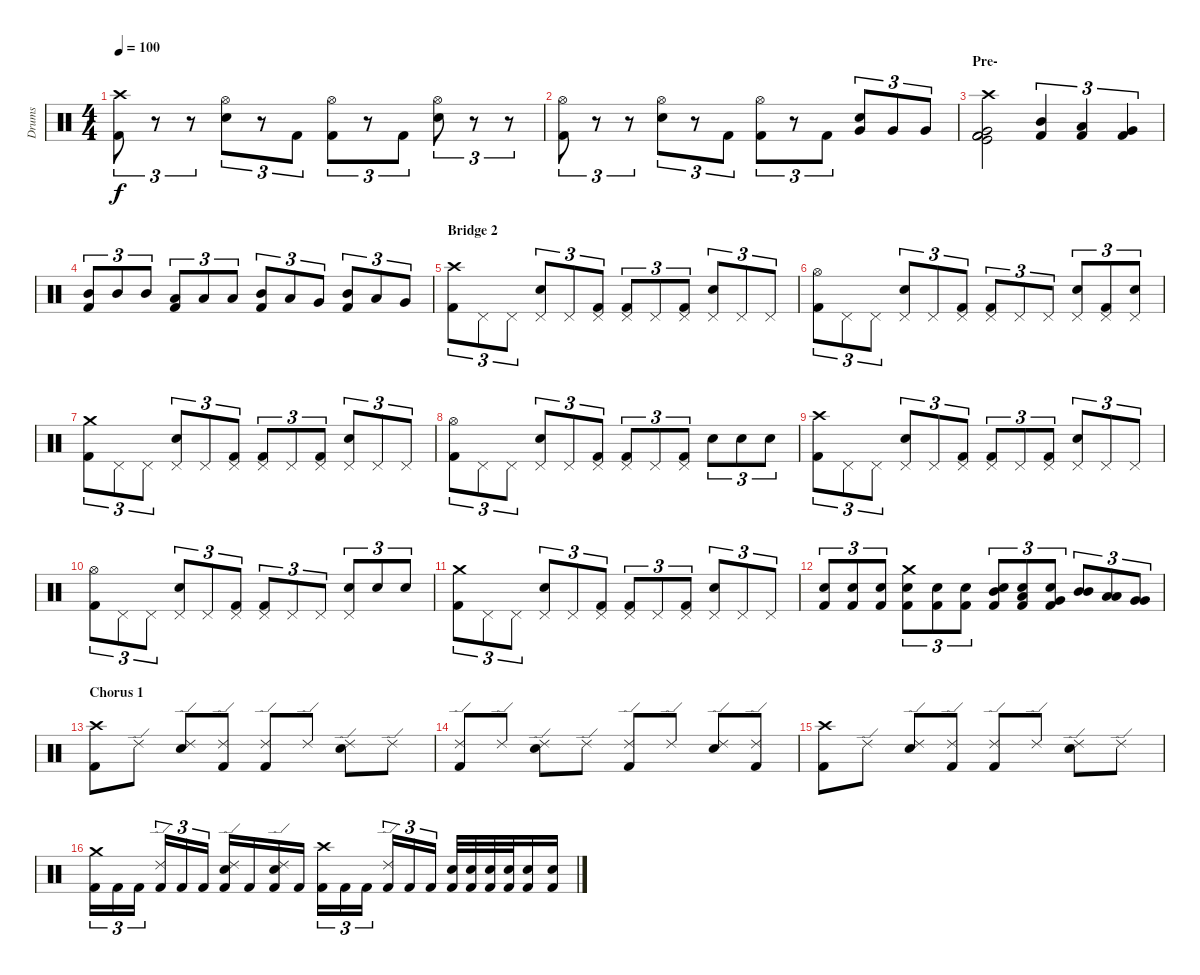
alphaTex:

\track ("Drums" "Drums") {instrument percussion}
\staff {score}
\articulation defaults
\ts (4 4)
\tempo 100
\clef neutral
\ks c
("Crash high (hit)" "Kick (hit) 2").8{tu (3 2) dy f} r.8{tu (3 2)} r.8{tu (3 2)} ("Hi-Hat (open)" "Electric Snare (hit)").8{tu (3 2)} r.8{tu (3 2)} "Kick (hit) 2".8{tu (3 2)} ("Hi-Hat (open)" "Kick (hit) 2").8{tu (3 2)} r.8{tu (3 2)} "Kick (hit) 2".8{tu (3 2)} ("Hi-Hat (open)" "Electric Snare (hit)").8{tu (3 2)} r.8{tu (3 2)} r.8{tu (3 2)} |
("Hi-Hat (open)" "Kick (hit) 2").8{tu (3 2)} r.8{tu (3 2)} r.8{tu (3 2)} ("Hi-Hat (open)" "Electric Snare (hit)").8{tu (3 2)} r.8{tu (3 2)} "Kick (hit) 2".8{tu (3 2)} ("Hi-Hat (open)" "Kick (hit) 2").8{tu (3 2)} r.8{tu (3 2)} "Kick (hit) 2".8{tu (3 2)} ("Very Low Tom (hit)" "Snare (hit) 2").8{tu (3 2)} "Very Low Tom (hit)".8{tu (3 2)} "Very Low Tom (hit)".8{tu (3 2)} |
\section ("" "Pre-")
("Crash high (hit)" "Very Low Tom (hit)" "Kick (hit)" "Kick (hit) 2" "Kick (hit) 2").2 ("Mid Tom (hit)" "Kick (hit) 2").4{tu (3 2)} ("Low Tom (hit)" "Kick (hit) 2").4{tu (3 2)} ("Very Low Tom (hit)" "Kick (hit) 2").4{tu (3 2)} |
("Mid Tom (hit)" "Kick (hit) 2").8{tu (3 2)} "Mid Tom (hit)".8{tu (3 2)} "Mid Tom (hit)".8{tu (3 2)} ("Low Tom (hit)" "Kick (hit) 2").8{tu (3 2)} "Low Tom (hit)".8{tu (3 2)} "Low Tom (hit)".8{tu (3 2)} ("Mid Tom (hit)" "Kick (hit) 2").8{tu (3 2)} "Low Tom (hit)".8{tu (3 2)} "Very Low Tom (hit)".8{tu (3 2)} ("Mid Tom (hit)" "Kick (hit) 2").8{tu (3 2)} "Low Tom (hit)".8{tu (3 2)} "Very Low Tom (hit)".8{tu (3 2)} |
\section ("" "Bridge 2")
("Crash high (hit)" "Kick (hit) 2").8{tu (3 2)} "Pedal Hi-Hat (hit)".8{tu (3 2)} "Pedal Hi-Hat (hit)".8{tu (3 2)} ("Pedal Hi-Hat (hit)" "Electric Snare (hit)").8{tu (3 2)} "Pedal Hi-Hat (hit)".8{tu (3 2)} ("Pedal Hi-Hat (hit)" "Kick (hit) 2").8{tu (3 2)} ("Pedal Hi-Hat (hit)" "Kick (hit) 2").8{tu (3 2)} "Pedal Hi-Hat (hit)".8{tu (3 2)} ("Pedal Hi-Hat (hit)" "Kick (hit) 2").8{tu (3 2)} ("Pedal Hi-Hat (hit)" "Electric Snare (hit)").8{tu (3 2)} "Pedal Hi-Hat (hit)".8{tu (3 2)} "Pedal Hi-Hat (hit)".8{tu (3 2)} |
("Hi-Hat (open)" "Kick (hit) 2").8{tu (3 2)} "Pedal Hi-Hat (hit)".8{tu (3 2)} "Pedal Hi-Hat (hit)".8{tu (3 2)} ("Pedal Hi-Hat (hit)" "Electric Snare (hit)").8{tu (3 2)} "Pedal Hi-Hat (hit)".8{tu (3 2)} ("Pedal Hi-Hat (hit)" "Kick (hit) 2").8{tu (3 2)} ("Pedal Hi-Hat (hit)" "Kick (hit) 2").8{tu (3 2)} "Pedal Hi-Hat (hit)".8{tu (3 2)} "Pedal Hi-Hat (hit)".8{tu (3 2)} ("Pedal Hi-Hat (hit)" "Electric Snare (hit)").8{tu (3 2)} ("Pedal Hi-Hat (hit)" "Kick (hit) 2").8{tu (3 2)} ("Pedal Hi-Hat (hit)" "Electric Snare (hit)").8{tu (3 2)} |
("Crash medium (hit)" "Kick (hit) 2").8{tu (3 2)} "Pedal Hi-Hat (hit)".8{tu (3 2)} "Pedal Hi-Hat (hit)".8{tu (3 2)} ("Pedal Hi-Hat (hit)" "Electric Snare (hit)").8{tu (3 2)} "Pedal Hi-Hat (hit)".8{tu (3 2)} ("Pedal Hi-Hat (hit)" "Kick (hit) 2").8{tu (3 2)} ("Pedal Hi-Hat (hit)" "Kick (hit) 2").8{tu (3 2)} "Pedal Hi-Hat (hit)".8{tu (3 2)} ("Pedal Hi-Hat (hit)" "Kick (hit) 2").8{tu (3 2)} ("Pedal Hi-Hat (hit)" "Electric Snare (hit)").8{tu (3 2)} "Pedal Hi-Hat (hit)".8{tu (3 2)} "Pedal Hi-Hat (hit)".8{tu (3 2)} |
("Hi-Hat (open)" "Kick (hit) 2").8{tu (3 2)} "Pedal Hi-Hat (hit)".8{tu (3 2)} "Pedal Hi-Hat (hit)".8{tu (3 2)} ("Pedal Hi-Hat (hit)" "Electric Snare (hit)").8{tu (3 2)} "Pedal Hi-Hat (hit)".8{tu (3 2)} ("Pedal Hi-Hat (hit)" "Kick (hit) 2").8{tu (3 2)} ("Pedal Hi-Hat (hit)" "Kick (hit) 2").8{tu (3 2)} "Pedal Hi-Hat (hit)".8{tu (3 2)} ("Pedal Hi-Hat (hit)" "Kick (hit) 2").8{tu (3 2)} "Snare (hit) 2".8{tu (3 2)} "Snare (hit) 2".8{tu (3 2)} "Snare (hit) 2".8{tu (3 2)} |
("Crash high (hit)" "Kick (hit) 2").8{tu (3 2)} "Pedal Hi-Hat (hit)".8{tu (3 2)} "Pedal Hi-Hat (hit)".8{tu (3 2)} ("Pedal Hi-Hat (hit)" "Electric Snare (hit)").8{tu (3 2)} "Pedal Hi-Hat (hit)".8{tu (3 2)} ("Pedal Hi-Hat (hit)" "Kick (hit) 2").8{tu (3 2)} ("Pedal Hi-Hat (hit)" "Kick (hit) 2").8{tu (3 2)} "Pedal Hi-Hat (hit)".8{tu (3 2)} ("Pedal Hi-Hat (hit)" "Kick (hit) 2").8{tu (3 2)} ("Pedal Hi-Hat (hit)" "Electric Snare (hit)").8{tu (3 2)} "Pedal Hi-Hat (hit)".8{tu (3 2)} "Pedal Hi-Hat (hit)".8{tu (3 2)} |
("Hi-Hat (open)" "Kick (hit) 2").8{tu (3 2)} "Pedal Hi-Hat (hit)".8{tu (3 2)} "Pedal Hi-Hat (hit)".8{tu (3 2)} ("Pedal Hi-Hat (hit)" "Electric Snare (hit)").8{tu (3 2)} "Pedal Hi-Hat (hit)".8{tu (3 2)} ("Pedal Hi-Hat (hit)" "Kick (hit) 2").8{tu (3 2)} ("Pedal Hi-Hat (hit)" "Kick (hit) 2").8{tu (3 2)} "Pedal Hi-Hat (hit)".8{tu (3 2)} "Pedal Hi-Hat (hit)".8{tu (3 2)} ("Pedal Hi-Hat (hit)" "Electric Snare (hit)").8{tu (3 2)} "Snare (hit) 2".8{tu (3 2)} "Snare (hit) 2".8{tu (3 2)} |
("Crash medium (hit)" "Kick (hit) 2").8{tu (3 2)} "Pedal Hi-Hat (hit)".8{tu (3 2)} "Pedal Hi-Hat (hit)".8{tu (3 2)} ("Pedal Hi-Hat (hit)" "Electric Snare (hit)").8{tu (3 2)} "Pedal Hi-Hat (hit)".8{tu (3 2)} ("Pedal Hi-Hat (hit)" "Kick (hit) 2").8{tu (3 2)} ("Pedal Hi-Hat (hit)" "Kick (hit) 2").8{tu (3 2)} "Pedal Hi-Hat (hit)".8{tu (3 2)} ("Pedal Hi-Hat (hit)" "Kick (hit) 2").8{tu (3 2)} ("Pedal Hi-Hat (hit)" "Electric Snare (hit)").8{tu (3 2)} "Pedal Hi-Hat (hit)".8{tu (3 2)} "Pedal Hi-Hat (hit)".8{tu (3 2)} |
("Snare (hit) 2" "Kick (hit) 2").8{tu (3 2)} ("Snare (hit) 2" "Kick (hit) 2").8{tu (3 2)} ("Snare (hit) 2" "Kick (hit) 2").8{tu (3 2)} ("Crash medium (hit)" "Snare (hit) 2" "Kick (hit) 2").8{tu (3 2)} ("Snare (hit) 2" "Kick (hit) 2").8{tu (3 2)} ("Snare (hit) 2" "Kick (hit) 2").8{tu (3 2)} ("Mid Tom (hit)" "Snare (hit) 2" "Kick (hit) 2").8{tu (3 2)} ("Low Tom (hit)" "Snare (hit) 2" "Kick (hit) 2").8{tu (3 2)} ("Very Low Tom (hit)" "Snare (hit) 2" "Kick (hit) 2").8{tu (3 2)} ("Mid Tom (hit)" "Mid Tom (hit)").8{tu (3 2)} ("Low Tom (hit)" "Low Tom (hit)").8{tu (3 2)} ("Very Low Tom (hit)" "Very Low Tom (hit)").8{tu (3 2)} |
\section ("" "Chorus 1")
("Crash high (hit)" "Kick (hit) 2").8 "Ride (edge) 2".8 ("Ride (edge) 2" "Snare (hit) 2").8 ("Ride (edge) 2" "Kick (hit) 2").8 ("Ride (edge) 2" "Kick (hit) 2").8 "Ride (edge) 2".8 ("Ride (edge) 2" "Snare (hit) 2").8 "Ride (edge) 2".8 |
("Ride (edge) 2" "Kick (hit) 2").8 "Ride (edge) 2".8 ("Ride (edge) 2" "Snare (hit) 2").8 "Ride (edge) 2".8 ("Ride (edge) 2" "Kick (hit) 2").8 "Ride (edge) 2".8 ("Ride (edge) 2" "Snare (hit) 2").8 ("Ride (edge) 2" "Kick (hit) 2").8 |
("Crash high (hit)" "Kick (hit) 2").8 "Ride (edge) 2".8 ("Ride (edge) 2" "Snare (hit) 2").8 ("Ride (edge) 2" "Kick (hit) 2").8 ("Ride (edge) 2" "Kick (hit) 2").8 "Ride (edge) 2".8 ("Ride (edge) 2" "Snare (hit) 2").8 "Ride (edge) 2".8 |
("Crash medium (hit)" "Kick (hit) 2").16{tu (3 2)} "Kick (hit) 2".16{tu (3 2)} "Kick (hit) 2".16{tu (3 2)} ("Ride (edge) 2" "Kick (hit) 2").16{tu (3 2)} "Kick (hit) 2".16{tu (3 2)} "Kick (hit) 2".16{tu (3 2)} ("Ride (edge) 2" "Snare (hit) 2" "Kick (hit) 2").16 "Kick (hit) 2".16 ("Ride (edge) 2" "Snare (hit) 2" "Kick (hit) 2").16 "Kick (hit) 2".16 ("Crash high (hit)" "Kick (hit) 2").16{tu (3 2)} "Kick (hit) 2".16{tu (3 2)} "Kick (hit) 2".16{tu (3 2)} ("Ride (edge) 2" "Kick (hit) 2").16{tu (3 2)} "Kick (hit) 2".16{tu (3 2)} "Kick (hit) 2".16{tu (3 2)} ("Snare (hit) 2" "Kick (hit) 2").32 ("Snare (hit) 2" "Kick (hit) 2").32 ("Snare (hit) 2" "Kick (hit) 2").32 ("Snare (hit) 2" "Kick (hit) 2").32 ("Snare (hit) 2" "Kick (hit) 2").16 ("Snare (hit) 2" "Kick (hit) 2").16
